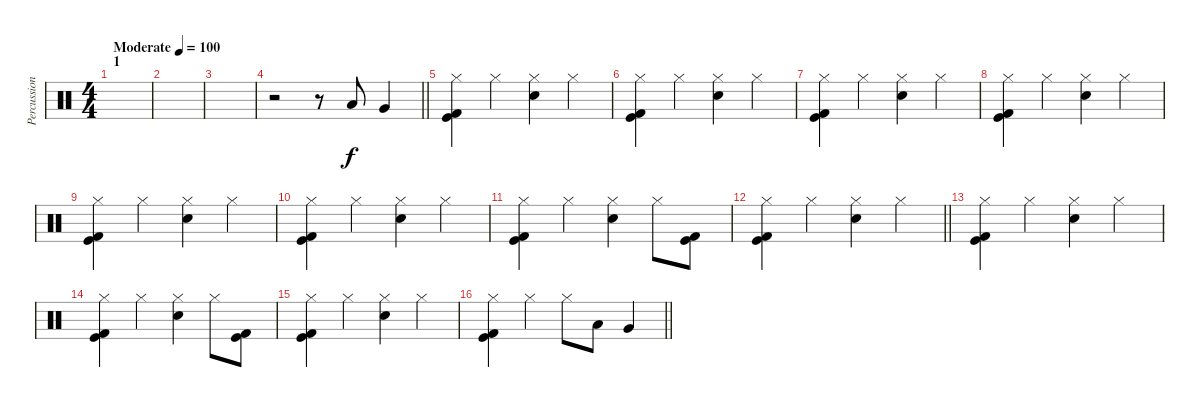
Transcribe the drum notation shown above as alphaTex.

\track ("Percussion" "Percussion") {instrument percussion}
\staff {score}
\articulation defaults
\ts (4 4)
\section ("" "1")
\tempo (100 "Moderate")
\clef neutral
\ks c
|
|
|
\barLineRight lightlight
r.2 r.8 "Low Tom (hit)".8 "Very Low Tom (hit)".4 |
\section ("" "")
("Hi-Hat (closed)" "Kick (hit)" "Kick (hit) 2").4 "Hi-Hat (closed)".4 ("Hi-Hat (closed)" "Electric Snare (hit)").4 "Hi-Hat (closed)".4 |
("Hi-Hat (closed)" "Kick (hit)" "Kick (hit) 2").4 "Hi-Hat (closed)".4 ("Hi-Hat (closed)" "Electric Snare (hit)").4 "Hi-Hat (closed)".4 |
("Hi-Hat (closed)" "Kick (hit)" "Kick (hit) 2").4 "Hi-Hat (closed)".4 ("Hi-Hat (closed)" "Electric Snare (hit)").4 "Hi-Hat (closed)".4 |
("Hi-Hat (closed)" "Kick (hit)" "Kick (hit) 2").4 "Hi-Hat (closed)".4 ("Hi-Hat (closed)" "Electric Snare (hit)").4 "Hi-Hat (closed)".4 |
("Hi-Hat (closed)" "Kick (hit)" "Kick (hit) 2").4 "Hi-Hat (closed)".4 ("Hi-Hat (closed)" "Electric Snare (hit)").4 "Hi-Hat (closed)".4 |
("Hi-Hat (closed)" "Kick (hit)" "Kick (hit) 2").4 "Hi-Hat (closed)".4 ("Hi-Hat (closed)" "Electric Snare (hit)").4 "Hi-Hat (closed)".4 |
("Hi-Hat (closed)" "Kick (hit)" "Kick (hit) 2").4 "Hi-Hat (closed)".4 ("Hi-Hat (closed)" "Electric Snare (hit)").4 "Hi-Hat (closed)".8 ("Kick (hit)" "Kick (hit) 2").8 |
\barLineRight lightlight
("Hi-Hat (closed)" "Kick (hit)" "Kick (hit) 2").4 "Hi-Hat (closed)".4 ("Hi-Hat (closed)" "Electric Snare (hit)").4 "Hi-Hat (closed)".4 |
\section ("" "")
("Hi-Hat (closed)" "Kick (hit)" "Kick (hit) 2").4 "Hi-Hat (closed)".4 ("Hi-Hat (closed)" "Electric Snare (hit)").4 "Hi-Hat (closed)".4 |
("Hi-Hat (closed)" "Kick (hit)" "Kick (hit) 2").4 "Hi-Hat (closed)".4 ("Hi-Hat (closed)" "Electric Snare (hit)").4 "Hi-Hat (closed)".8 ("Kick (hit)" "Kick (hit) 2").8 |
("Hi-Hat (closed)" "Kick (hit)" "Kick (hit) 2").4 "Hi-Hat (closed)".4 ("Hi-Hat (closed)" "Electric Snare (hit)").4 "Hi-Hat (closed)".4 |
\barLineRight lightlight
("Hi-Hat (closed)" "Kick (hit)" "Kick (hit) 2").4 "Hi-Hat (closed)".4 "Hi-Hat (closed)".8 "Low Tom (hit)".8 "Very Low Tom (hit)".4
